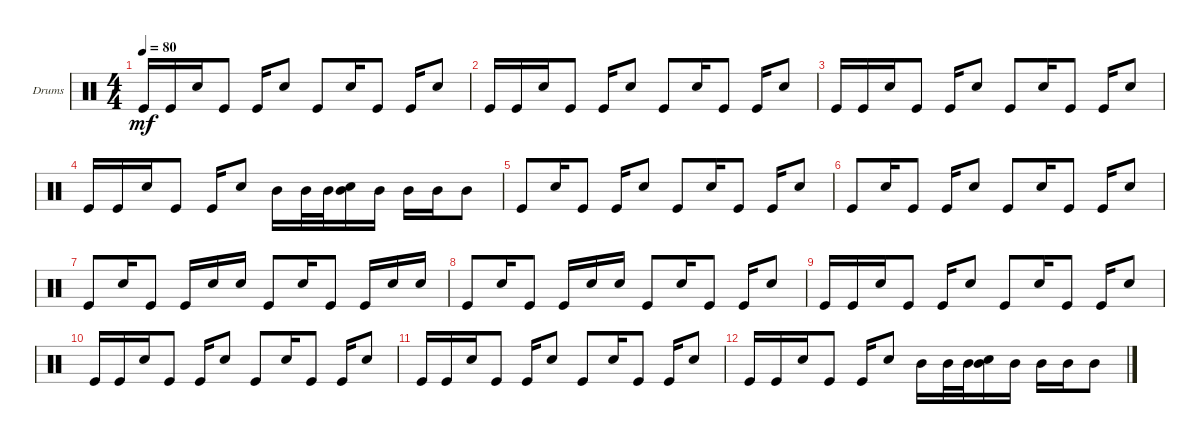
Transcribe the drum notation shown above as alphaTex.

\defaultSystemsLayout 4
\bracketExtendMode groupsimilarinstruments
\firstSystemTrackNameOrientation horizontal
\otherSystemsTrackNameOrientation horizontal
\track ("Барабаны" "Drums") {instrument percussion}
\staff {score}
\articulation defaults
\ts (4 4)
\tempo 80
\clef neutral
\ks c "Kick (hit)".16{dy mf} "Kick (hit)".16 "Snare (hit) 2".16 "Kick (hit)".8 "Kick (hit)".16 "Snare (hit) 2".8 "Kick (hit)".8 "Snare (hit) 2".16 "Kick (hit)".8 "Kick (hit)".16 "Snare (hit) 2".8
|
"Kick (hit)".16 "Kick (hit)".16 "Snare (hit) 2".16 "Kick (hit)".8 "Kick (hit)".16 "Snare (hit) 2".8 "Kick (hit)".8 "Snare (hit) 2".16 "Kick (hit)".8 "Kick (hit)".16 "Snare (hit) 2".8 |
"Kick (hit)".16 "Kick (hit)".16 "Snare (hit) 2".16 "Kick (hit)".8 "Kick (hit)".16 "Snare (hit) 2".8 "Kick (hit)".8 "Snare (hit) 2".16 "Kick (hit)".8 "Kick (hit)".16 "Snare (hit) 2".8 |
"Kick (hit)".16 "Kick (hit)".16 "Snare (hit) 2".16 "Kick (hit)".8 "Kick (hit)".16 "Snare (hit) 2".8 "Mid Tom (hit)".16 "Mid Tom (hit)".32 "Mid Tom (hit)".32 ("Mid Tom (hit)" "Snare (hit) 2").16 "Mid Tom (hit)".16 "Mid Tom (hit)".16 "Mid Tom (hit)".16 "Mid Tom (hit)".8 |
"Kick (hit)".8 "Snare (hit) 2".16 "Kick (hit)".8 "Kick (hit)".16 "Snare (hit) 2".8 "Kick (hit)".8 "Snare (hit) 2".16 "Kick (hit)".8 "Kick (hit)".16 "Snare (hit) 2".8 |
"Kick (hit)".8 "Snare (hit) 2".16 "Kick (hit)".8 "Kick (hit)".16 "Snare (hit) 2".8 "Kick (hit)".8 "Snare (hit) 2".16 "Kick (hit)".8 "Kick (hit)".16 "Snare (hit) 2".8 |
"Kick (hit)".8 "Snare (hit) 2".16 "Kick (hit)".8 "Kick (hit)".16 "Snare (hit) 2".16 "Snare (hit) 2".16 "Kick (hit)".8 "Snare (hit) 2".16 "Kick (hit)".8 "Kick (hit)".16 "Snare (hit) 2".16 "Snare (hit) 2".16 |
"Kick (hit)".8 "Snare (hit) 2".16 "Kick (hit)".8 "Kick (hit)".16 "Snare (hit) 2".16 "Snare (hit) 2".16 "Kick (hit)".8 "Snare (hit) 2".16 "Kick (hit)".8 "Kick (hit)".16 "Snare (hit) 2".8 |
"Kick (hit)".16 "Kick (hit)".16 "Snare (hit) 2".16 "Kick (hit)".8 "Kick (hit)".16 "Snare (hit) 2".8 "Kick (hit)".8 "Snare (hit) 2".16 "Kick (hit)".8 "Kick (hit)".16 "Snare (hit) 2".8 |
"Kick (hit)".16 "Kick (hit)".16 "Snare (hit) 2".16 "Kick (hit)".8 "Kick (hit)".16 "Snare (hit) 2".8 "Kick (hit)".8 "Snare (hit) 2".16 "Kick (hit)".8 "Kick (hit)".16 "Snare (hit) 2".8 |
"Kick (hit)".16 "Kick (hit)".16 "Snare (hit) 2".16 "Kick (hit)".8 "Kick (hit)".16 "Snare (hit) 2".8 "Kick (hit)".8 "Snare (hit) 2".16 "Kick (hit)".8 "Kick (hit)".16 "Snare (hit) 2".8 |
"Kick (hit)".16 "Kick (hit)".16 "Snare (hit) 2".16 "Kick (hit)".8 "Kick (hit)".16 "Snare (hit) 2".8 "Mid Tom (hit)".16 "Mid Tom (hit)".32 "Mid Tom (hit)".32 ("Mid Tom (hit)" "Snare (hit) 2").16 "Mid Tom (hit)".16 "Mid Tom (hit)".16 "Mid Tom (hit)".16 "Mid Tom (hit)".8
